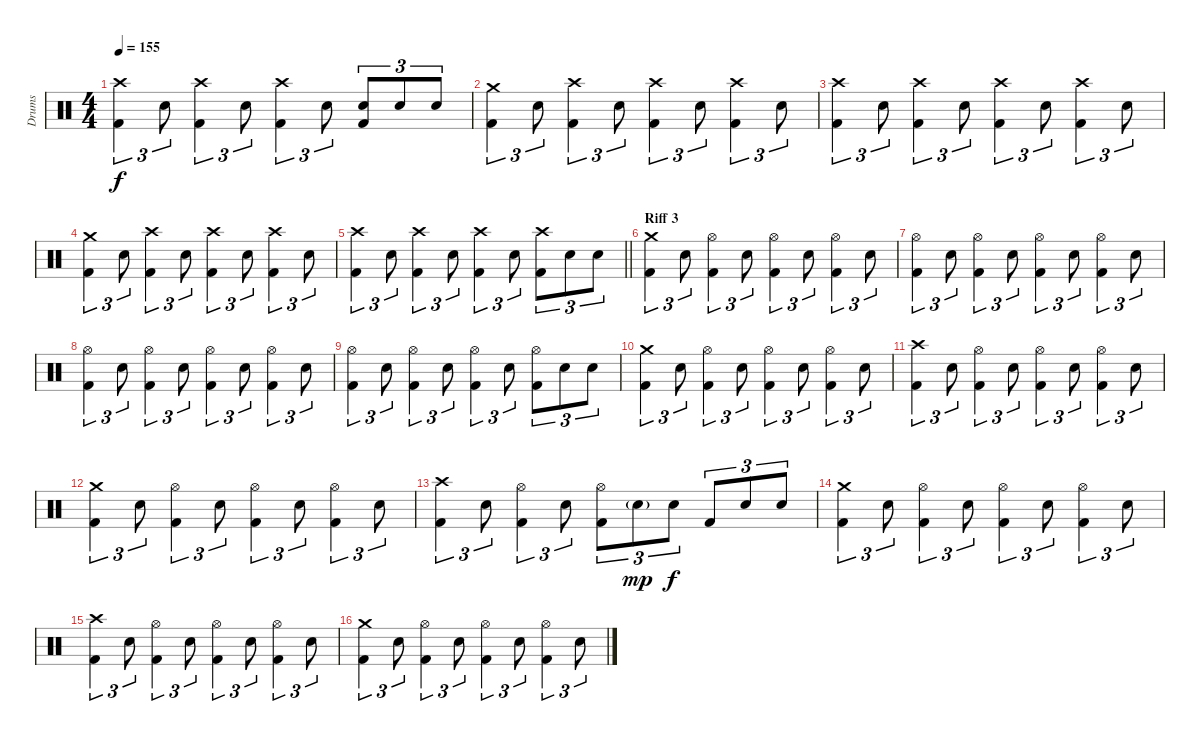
\track ("Drums" "Drums") {instrument percussion}
\staff {score}
\articulation defaults
\ts (4 4)
\tempo 155
\clef neutral
\ks c
("Kick (hit) 2" "Crash high (hit)").4{tu (3 2) dy f} "Electric Snare (hit)".8{tu (3 2)} ("Kick (hit) 2" "Crash high (hit)").4{tu (3 2)} "Electric Snare (hit)".8{tu (3 2)} ("Kick (hit) 2" "Crash high (hit)").4{tu (3 2)} "Electric Snare (hit)".8{tu (3 2)} ("Electric Snare (hit)" "Kick (hit) 2").8{tu (3 2)} "Electric Snare (hit)".8{tu (3 2)} "Electric Snare (hit)".8{tu (3 2)} |
("Crash medium (hit)" "Kick (hit) 2").4{tu (3 2)} "Electric Snare (hit)".8{tu (3 2)} ("Kick (hit) 2" "Crash high (hit)").4{tu (3 2)} "Electric Snare (hit)".8{tu (3 2)} ("Kick (hit) 2" "Crash high (hit)").4{tu (3 2)} "Electric Snare (hit)".8{tu (3 2)} ("Kick (hit) 2" "Crash high (hit)").4{tu (3 2)} "Electric Snare (hit)".8{tu (3 2)} |
("Kick (hit) 2" "Crash high (hit)").4{tu (3 2)} "Electric Snare (hit)".8{tu (3 2)} ("Kick (hit) 2" "Crash high (hit)").4{tu (3 2)} "Electric Snare (hit)".8{tu (3 2)} ("Kick (hit) 2" "Crash high (hit)").4{tu (3 2)} "Electric Snare (hit)".8{tu (3 2)} ("Kick (hit) 2" "Crash high (hit)").4{tu (3 2)} "Electric Snare (hit)".8{tu (3 2)} |
("Kick (hit) 2" "Crash medium (hit)").4{tu (3 2)} "Electric Snare (hit)".8{tu (3 2)} ("Kick (hit) 2" "Crash high (hit)").4{tu (3 2)} "Electric Snare (hit)".8{tu (3 2)} ("Kick (hit) 2" "Crash high (hit)").4{tu (3 2)} "Electric Snare (hit)".8{tu (3 2)} ("Kick (hit) 2" "Crash high (hit)").4{tu (3 2)} "Electric Snare (hit)".8{tu (3 2)} |
\barLineRight lightlight
("Kick (hit) 2" "Crash high (hit)").4{tu (3 2)} "Electric Snare (hit)".8{tu (3 2)} ("Kick (hit) 2" "Crash high (hit)").4{tu (3 2)} "Electric Snare (hit)".8{tu (3 2)} ("Kick (hit) 2" "Crash high (hit)").4{tu (3 2)} "Electric Snare (hit)".8{tu (3 2)} ("Crash high (hit)" "Kick (hit) 2").8{tu (3 2)} "Electric Snare (hit)".8{tu (3 2)} "Electric Snare (hit)".8{tu (3 2)} |
\section ("" "Riff 3")
("Crash medium (hit)" "Kick (hit) 2").4{tu (3 2)} "Electric Snare (hit)".8{tu (3 2)} ("Kick (hit) 2" "Hi-Hat (open)").4{tu (3 2)} "Electric Snare (hit)".8{tu (3 2)} ("Kick (hit) 2" "Hi-Hat (open)").4{tu (3 2)} "Electric Snare (hit)".8{tu (3 2)} ("Kick (hit) 2" "Hi-Hat (open)").4{tu (3 2)} "Electric Snare (hit)".8{tu (3 2)} |
("Kick (hit) 2" "Hi-Hat (open)").4{tu (3 2)} "Electric Snare (hit)".8{tu (3 2)} ("Kick (hit) 2" "Hi-Hat (open)").4{tu (3 2)} "Electric Snare (hit)".8{tu (3 2)} ("Kick (hit) 2" "Hi-Hat (open)").4{tu (3 2)} "Electric Snare (hit)".8{tu (3 2)} ("Kick (hit) 2" "Hi-Hat (open)").4{tu (3 2)} "Electric Snare (hit)".8{tu (3 2)} |
("Kick (hit) 2" "Hi-Hat (open)").4{tu (3 2)} "Electric Snare (hit)".8{tu (3 2)} ("Kick (hit) 2" "Hi-Hat (open)").4{tu (3 2)} "Electric Snare (hit)".8{tu (3 2)} ("Kick (hit) 2" "Hi-Hat (open)").4{tu (3 2)} "Electric Snare (hit)".8{tu (3 2)} ("Kick (hit) 2" "Hi-Hat (open)").4{tu (3 2)} "Electric Snare (hit)".8{tu (3 2)} |
("Kick (hit) 2" "Hi-Hat (open)").4{tu (3 2)} "Electric Snare (hit)".8{tu (3 2)} ("Kick (hit) 2" "Hi-Hat (open)").4{tu (3 2)} "Electric Snare (hit)".8{tu (3 2)} ("Kick (hit) 2" "Hi-Hat (open)").4{tu (3 2)} "Electric Snare (hit)".8{tu (3 2)} ("Kick (hit) 2" "Hi-Hat (open)").8{tu (3 2)} "Electric Snare (hit)".8{tu (3 2)} "Electric Snare (hit)".8{tu (3 2)} |
("Crash medium (hit)" "Kick (hit) 2").4{tu (3 2)} "Electric Snare (hit)".8{tu (3 2)} ("Kick (hit) 2" "Hi-Hat (open)").4{tu (3 2)} "Electric Snare (hit)".8{tu (3 2)} ("Kick (hit) 2" "Hi-Hat (open)").4{tu (3 2)} "Electric Snare (hit)".8{tu (3 2)} ("Kick (hit) 2" "Hi-Hat (open)").4{tu (3 2)} "Electric Snare (hit)".8{tu (3 2)} |
("Kick (hit) 2" "Crash high (hit)").4{tu (3 2)} "Electric Snare (hit)".8{tu (3 2)} ("Kick (hit) 2" "Hi-Hat (open)").4{tu (3 2)} "Electric Snare (hit)".8{tu (3 2)} ("Kick (hit) 2" "Hi-Hat (open)").4{tu (3 2)} "Electric Snare (hit)".8{tu (3 2)} ("Kick (hit) 2" "Hi-Hat (open)").4{tu (3 2)} "Electric Snare (hit)".8{tu (3 2)} |
("Kick (hit) 2" "Crash medium (hit)").4{tu (3 2)} "Electric Snare (hit)".8{tu (3 2)} ("Kick (hit) 2" "Hi-Hat (open)").4{tu (3 2)} "Electric Snare (hit)".8{tu (3 2)} ("Kick (hit) 2" "Hi-Hat (open)").4{tu (3 2)} "Electric Snare (hit)".8{tu (3 2)} ("Kick (hit) 2" "Hi-Hat (open)").4{tu (3 2)} "Electric Snare (hit)".8{tu (3 2)} |
("Kick (hit) 2" "Crash high (hit)").4{tu (3 2)} "Electric Snare (hit)".8{tu (3 2)} ("Kick (hit) 2" "Hi-Hat (open)").4{tu (3 2)} "Electric Snare (hit)".8{tu (3 2)} ("Kick (hit) 2" "Hi-Hat (open)").8{tu (3 2)} "Electric Snare (hit)"{g}.8{tu (3 2) dy mp} "Electric Snare (hit)".8{tu (3 2) dy f} "Kick (hit) 2".8{tu (3 2)} "Electric Snare (hit)".8{tu (3 2)} "Electric Snare (hit)".8{tu (3 2)} |
("Crash medium (hit)" "Kick (hit) 2").4{tu (3 2)} "Electric Snare (hit)".8{tu (3 2)} ("Kick (hit) 2" "Hi-Hat (open)").4{tu (3 2)} "Electric Snare (hit)".8{tu (3 2)} ("Kick (hit) 2" "Hi-Hat (open)").4{tu (3 2)} "Electric Snare (hit)".8{tu (3 2)} ("Kick (hit) 2" "Hi-Hat (open)").4{tu (3 2)} "Electric Snare (hit)".8{tu (3 2)} |
("Kick (hit) 2" "Crash high (hit)").4{tu (3 2)} "Electric Snare (hit)".8{tu (3 2)} ("Kick (hit) 2" "Hi-Hat (open)").4{tu (3 2)} "Electric Snare (hit)".8{tu (3 2)} ("Kick (hit) 2" "Hi-Hat (open)").4{tu (3 2)} "Electric Snare (hit)".8{tu (3 2)} ("Kick (hit) 2" "Hi-Hat (open)").4{tu (3 2)} "Electric Snare (hit)".8{tu (3 2)} |
("Crash medium (hit)" "Kick (hit) 2").4{tu (3 2)} "Electric Snare (hit)".8{tu (3 2)} ("Kick (hit) 2" "Hi-Hat (open)").4{tu (3 2)} "Electric Snare (hit)".8{tu (3 2)} ("Kick (hit) 2" "Hi-Hat (open)").4{tu (3 2)} "Electric Snare (hit)".8{tu (3 2)} ("Kick (hit) 2" "Hi-Hat (open)").4{tu (3 2)} "Electric Snare (hit)".8{tu (3 2)}
